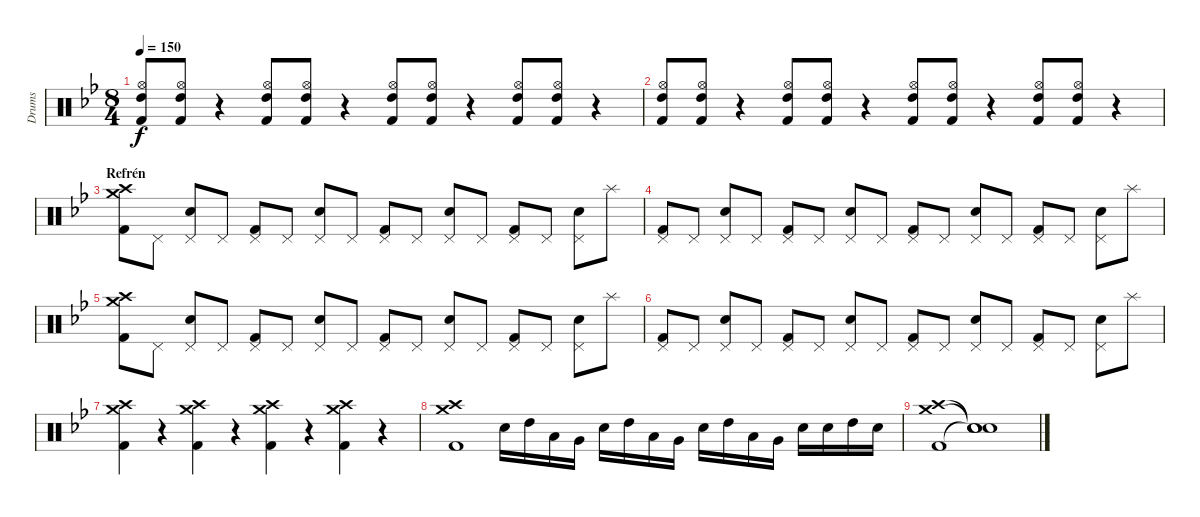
\track ("Drums" "Drums") {instrument percussion}
\staff {score}
\articulation defaults
\ts (8 4)
\tempo 150
\clef neutral
\ks gminor
("High Tom (hit)" "Hi-Hat (open)" "Kick (hit) 2").8{dy f} ("High Tom (hit)" "Hi-Hat (open)" "Kick (hit) 2").8 r.4 ("High Tom (hit)" "Hi-Hat (open)" "Kick (hit) 2").8 ("High Tom (hit)" "Hi-Hat (open)" "Kick (hit) 2").8 r.4 ("High Tom (hit)" "Hi-Hat (open)" "Kick (hit) 2").8 ("High Tom (hit)" "Hi-Hat (open)" "Kick (hit) 2").8 r.4 ("High Tom (hit)" "Hi-Hat (open)" "Kick (hit) 2").8 ("High Tom (hit)" "Hi-Hat (open)" "Kick (hit) 2").8 r.4 |
("High Tom (hit)" "Hi-Hat (open)" "Kick (hit) 2").8 ("High Tom (hit)" "Hi-Hat (open)" "Kick (hit) 2").8 r.4 ("High Tom (hit)" "Hi-Hat (open)" "Kick (hit) 2").8 ("High Tom (hit)" "Hi-Hat (open)" "Kick (hit) 2").8 r.4 ("High Tom (hit)" "Hi-Hat (open)" "Kick (hit) 2").8 ("High Tom (hit)" "Hi-Hat (open)" "Kick (hit) 2").8 r.4 ("High Tom (hit)" "Hi-Hat (open)" "Kick (hit) 2").8 ("High Tom (hit)" "Hi-Hat (open)" "Kick (hit) 2").8 r.4 |
\section ("" "Refrén")
("Crash medium (hit)" "Crash high (hit)" "Kick (hit) 2").8 "Pedal Hi-Hat (hit)".8 ("Pedal Hi-Hat (hit)" "Snare (hit) 2").8 "Pedal Hi-Hat (hit)".8 ("Pedal Hi-Hat (hit)" "Kick (hit) 2").8 "Pedal Hi-Hat (hit)".8 ("Pedal Hi-Hat (hit)" "Snare (hit) 2").8 "Pedal Hi-Hat (hit)".8 ("Pedal Hi-Hat (hit)" "Kick (hit) 2").8 "Pedal Hi-Hat (hit)".8 ("Pedal Hi-Hat (hit)" "Snare (hit) 2").8 "Pedal Hi-Hat (hit)".8 ("Pedal Hi-Hat (hit)" "Kick (hit) 2").8 "Pedal Hi-Hat (hit)".8 ("Pedal Hi-Hat (hit)" "Snare (hit) 2").8 "Splash (hit)".8 |
("Pedal Hi-Hat (hit)" "Kick (hit) 2").8 "Pedal Hi-Hat (hit)".8 ("Pedal Hi-Hat (hit)" "Snare (hit) 2").8 "Pedal Hi-Hat (hit)".8 ("Pedal Hi-Hat (hit)" "Kick (hit) 2").8 "Pedal Hi-Hat (hit)".8 ("Pedal Hi-Hat (hit)" "Snare (hit) 2").8 "Pedal Hi-Hat (hit)".8 ("Pedal Hi-Hat (hit)" "Kick (hit) 2").8 "Pedal Hi-Hat (hit)".8 ("Pedal Hi-Hat (hit)" "Snare (hit) 2").8 "Pedal Hi-Hat (hit)".8 ("Pedal Hi-Hat (hit)" "Kick (hit) 2").8 "Pedal Hi-Hat (hit)".8 ("Pedal Hi-Hat (hit)" "Snare (hit) 2").8 "Splash (hit)".8 |
("Crash medium (hit)" "Crash high (hit)" "Kick (hit) 2").8 "Pedal Hi-Hat (hit)".8 ("Pedal Hi-Hat (hit)" "Snare (hit) 2").8 "Pedal Hi-Hat (hit)".8 ("Pedal Hi-Hat (hit)" "Kick (hit) 2").8 "Pedal Hi-Hat (hit)".8 ("Pedal Hi-Hat (hit)" "Snare (hit) 2").8 "Pedal Hi-Hat (hit)".8 ("Pedal Hi-Hat (hit)" "Kick (hit) 2").8 "Pedal Hi-Hat (hit)".8 ("Pedal Hi-Hat (hit)" "Snare (hit) 2").8 "Pedal Hi-Hat (hit)".8 ("Pedal Hi-Hat (hit)" "Kick (hit) 2").8 "Pedal Hi-Hat (hit)".8 ("Pedal Hi-Hat (hit)" "Snare (hit) 2").8 "Splash (hit)".8 |
("Pedal Hi-Hat (hit)" "Kick (hit) 2").8 "Pedal Hi-Hat (hit)".8 ("Pedal Hi-Hat (hit)" "Snare (hit) 2").8 "Pedal Hi-Hat (hit)".8 ("Pedal Hi-Hat (hit)" "Kick (hit) 2").8 "Pedal Hi-Hat (hit)".8 ("Pedal Hi-Hat (hit)" "Snare (hit) 2").8 "Pedal Hi-Hat (hit)".8 ("Pedal Hi-Hat (hit)" "Kick (hit) 2").8 "Pedal Hi-Hat (hit)".8 ("Pedal Hi-Hat (hit)" "Snare (hit) 2").8 "Pedal Hi-Hat (hit)".8 ("Pedal Hi-Hat (hit)" "Kick (hit) 2").8 "Pedal Hi-Hat (hit)".8 ("Pedal Hi-Hat (hit)" "Snare (hit) 2").8 "Splash (hit)".8 |
("Crash medium (hit)" "Crash high (hit)" "Kick (hit) 2").4 r.4 ("Crash medium (hit)" "Crash high (hit)" "Kick (hit) 2").4 r.4 ("Crash medium (hit)" "Crash high (hit)" "Kick (hit) 2").4 r.4 ("Crash medium (hit)" "Crash high (hit)" "Kick (hit) 2").4 r.4 |
("Crash medium (hit)" "Crash high (hit)" "Kick (hit) 2").1 "Snare (hit) 2".16 "High Tom (hit)".16 "Low Tom (hit)".16 "Very Low Tom (hit)".16 "Snare (hit) 2".16 "High Tom (hit)".16 "Low Tom (hit)".16 "Very Low Tom (hit)".16 "Snare (hit) 2".16 "High Tom (hit)".16 "Low Tom (hit)".16 "Very Low Tom (hit)".16 "Snare (hit) 2".16 "Snare (hit) 2".16 "High Tom (hit)".16 "Snare (hit) 2".16 |
("Crash medium (hit)" "Crash high (hit)" "Kick (hit) 2").1 ("Snare (hit)"{t} "Snare (hit)"{t} "Snare (hit)"{t}).1
